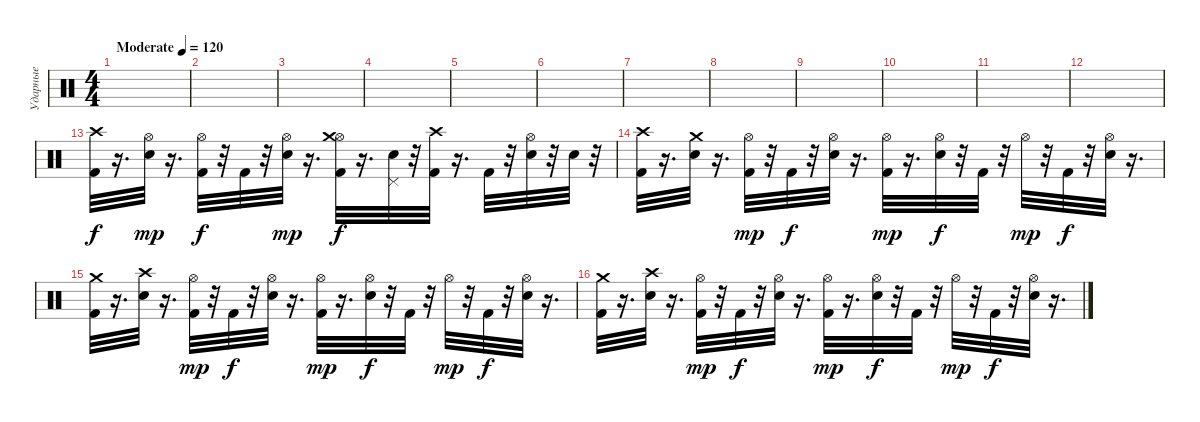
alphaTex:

\track ("Ударные" "Ударные") {instrument percussion}
\staff {score}
\articulation defaults
\ts (4 4)
\tempo (120 "Moderate")
\clef neutral
\ks c
|
|
|
|
|
|
|
|
|
|
|
|
("Crash high (hit)" "Kick (hit) 2").32 r.16{d} ("Hi-Hat (open)" "Electric Snare (hit)").32{dy mp} r.16{d} ("Hi-Hat (open)" "Kick (hit) 2").32{dy f} r.32 "Kick (hit) 2".32 r.32 ("Hi-Hat (open)" "Electric Snare (hit)").32{dy mp} r.16{d} ("Hi-Hat (open)" "Crash medium (hit)" "Kick (hit) 2").32{dy f} r.16{d} ("Pedal Hi-Hat (hit)" "Electric Snare (hit)").32 r.32 ("Crash high (hit)" "Kick (hit) 2").32 r.16{d} "Kick (hit) 2".32 r.32 ("Hi-Hat (open)" "Electric Snare (hit)").32 r.32 "Electric Snare (hit)".32 r.32 |
("Crash high (hit)" "Kick (hit) 2").32 r.16{d} ("Crash medium (hit)" "Electric Snare (hit)").32 r.16{d} ("Hi-Hat (open)" "Kick (hit) 2").32{dy mp} r.32 "Kick (hit) 2".32{dy f} r.32 ("Hi-Hat (open)" "Electric Snare (hit)").32 r.16{d} ("Hi-Hat (open)" "Kick (hit) 2").32{dy mp} r.16{d} ("Hi-Hat (open)" "Electric Snare (hit)").32{dy f} r.32 "Kick (hit) 2".32 r.32 "Hi-Hat (open)".32{dy mp} r.32 "Kick (hit) 2".32{dy f} r.32 ("Hi-Hat (open)" "Electric Snare (hit)").32 r.16{d} |
("Crash medium (hit)" "Kick (hit) 2").32 r.16{d} ("Electric Snare (hit)" "Crash high (hit)").32 r.16{d} ("Hi-Hat (open)" "Kick (hit) 2").32{dy mp} r.32 "Kick (hit) 2".32{dy f} r.32 ("Hi-Hat (open)" "Electric Snare (hit)").32 r.16{d} ("Hi-Hat (open)" "Kick (hit) 2").32{dy mp} r.16{d} ("Hi-Hat (open)" "Electric Snare (hit)").32{dy f} r.32 "Kick (hit) 2".32 r.32 "Hi-Hat (open)".32{dy mp} r.32 "Kick (hit) 2".32{dy f} r.32 ("Hi-Hat (open)" "Electric Snare (hit)").32 r.16{d} |
("Kick (hit) 2" "Crash medium (hit)").32 r.16{d} ("Electric Snare (hit)" "Crash high (hit)").32 r.16{d} ("Hi-Hat (open)" "Kick (hit) 2").32{dy mp} r.32 "Kick (hit) 2".32{dy f} r.32 ("Electric Snare (hit)" "Hi-Hat (open)").32 r.16{d} ("Hi-Hat (open)" "Kick (hit) 2").32{dy mp} r.16{d} ("Electric Snare (hit)" "Hi-Hat (open)").32{dy f} r.32 "Kick (hit) 2".32 r.32 "Hi-Hat (open)".32{dy mp} r.32 "Kick (hit) 2".32{dy f} r.32 ("Electric Snare (hit)" "Hi-Hat (open)").32 r.16{d}
